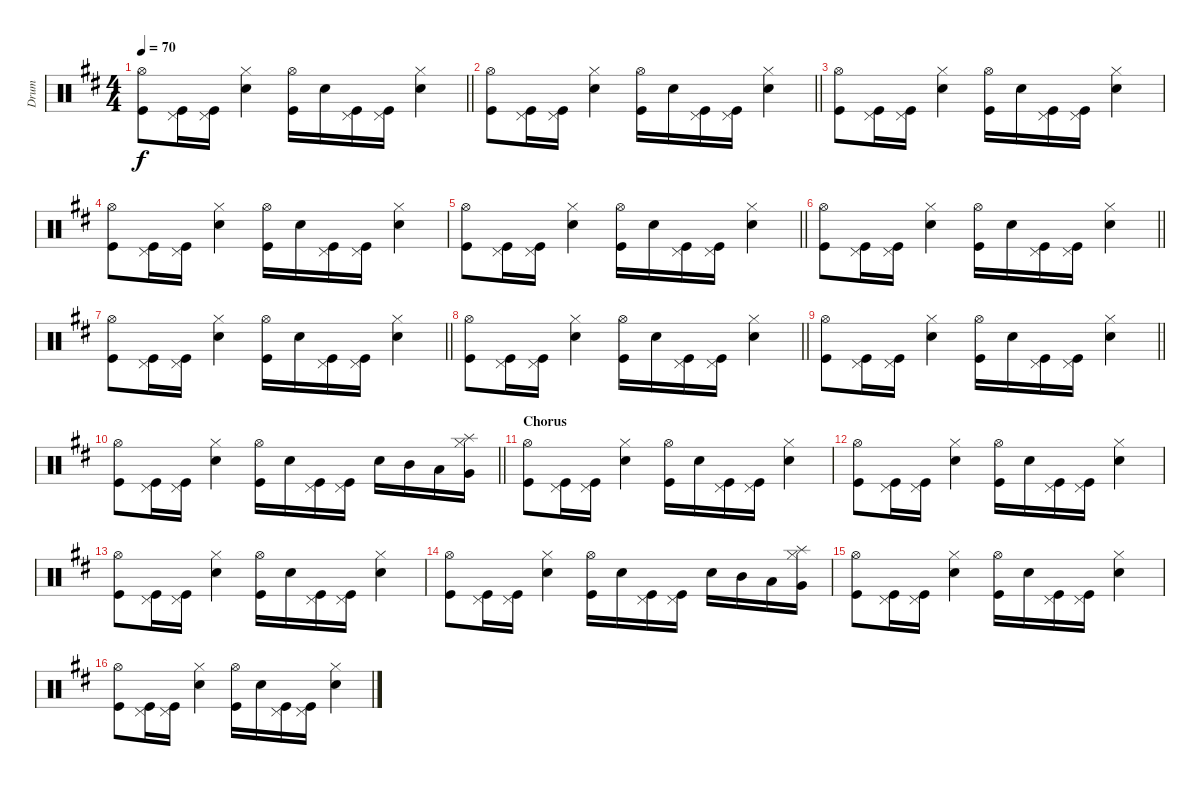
\track ("Drum" "Drum") {instrument percussion}
\staff {score}
\articulation defaults
\ts (4 4)
\tempo 70
\clef neutral
\barLineRight lightlight
\ks d
("Kick (hit)" "Hi-Hat (open)").8{dy f} ("Kick (hit)" "Pedal Hi-Hat (hit)").16 ("Kick (hit)" "Pedal Hi-Hat (hit)").16 ("Snare (hit) 2" "Hi-Hat (closed)").4 ("Kick (hit)" "Hi-Hat (open)").16 "Snare (hit) 2".16 ("Kick (hit)" "Pedal Hi-Hat (hit)").16 ("Kick (hit)" "Pedal Hi-Hat (hit)").16 ("Snare (hit) 2" "Hi-Hat (closed)").4 |
\barLineRight lightlight
("Kick (hit)" "Hi-Hat (open)").8 ("Kick (hit)" "Pedal Hi-Hat (hit)").16 ("Kick (hit)" "Pedal Hi-Hat (hit)").16 ("Snare (hit) 2" "Hi-Hat (closed)").4 ("Kick (hit)" "Hi-Hat (open)").16 "Snare (hit) 2".16 ("Kick (hit)" "Pedal Hi-Hat (hit)").16 ("Kick (hit)" "Pedal Hi-Hat (hit)").16 ("Snare (hit) 2" "Hi-Hat (closed)").4 |
("Kick (hit)" "Hi-Hat (open)").8 ("Kick (hit)" "Pedal Hi-Hat (hit)").16 ("Kick (hit)" "Pedal Hi-Hat (hit)").16 ("Snare (hit) 2" "Hi-Hat (closed)").4 ("Kick (hit)" "Hi-Hat (open)").16 "Snare (hit) 2".16 ("Kick (hit)" "Pedal Hi-Hat (hit)").16 ("Kick (hit)" "Pedal Hi-Hat (hit)").16 ("Snare (hit) 2" "Hi-Hat (closed)").4 |
("Kick (hit)" "Hi-Hat (open)").8 ("Kick (hit)" "Pedal Hi-Hat (hit)").16 ("Kick (hit)" "Pedal Hi-Hat (hit)").16 ("Snare (hit) 2" "Hi-Hat (closed)").4 ("Kick (hit)" "Hi-Hat (open)").16 "Snare (hit) 2".16 ("Kick (hit)" "Pedal Hi-Hat (hit)").16 ("Kick (hit)" "Pedal Hi-Hat (hit)").16 ("Snare (hit) 2" "Hi-Hat (closed)").4 |
\barLineRight lightlight
("Kick (hit)" "Hi-Hat (open)").8 ("Kick (hit)" "Pedal Hi-Hat (hit)").16 ("Kick (hit)" "Pedal Hi-Hat (hit)").16 ("Snare (hit) 2" "Hi-Hat (closed)").4 ("Kick (hit)" "Hi-Hat (open)").16 "Snare (hit) 2".16 ("Kick (hit)" "Pedal Hi-Hat (hit)").16 ("Kick (hit)" "Pedal Hi-Hat (hit)").16 ("Snare (hit) 2" "Hi-Hat (closed)").4 |
\barLineRight lightlight
("Kick (hit)" "Hi-Hat (open)").8 ("Kick (hit)" "Pedal Hi-Hat (hit)").16 ("Kick (hit)" "Pedal Hi-Hat (hit)").16 ("Snare (hit) 2" "Hi-Hat (closed)").4 ("Kick (hit)" "Hi-Hat (open)").16 "Snare (hit) 2".16 ("Kick (hit)" "Pedal Hi-Hat (hit)").16 ("Kick (hit)" "Pedal Hi-Hat (hit)").16 ("Snare (hit) 2" "Hi-Hat (closed)").4 |
\barLineRight lightlight
("Kick (hit)" "Hi-Hat (open)").8 ("Kick (hit)" "Pedal Hi-Hat (hit)").16 ("Kick (hit)" "Pedal Hi-Hat (hit)").16 ("Snare (hit) 2" "Hi-Hat (closed)").4 ("Kick (hit)" "Hi-Hat (open)").16 "Snare (hit) 2".16 ("Kick (hit)" "Pedal Hi-Hat (hit)").16 ("Kick (hit)" "Pedal Hi-Hat (hit)").16 ("Snare (hit) 2" "Hi-Hat (closed)").4 |
\barLineRight lightlight
("Kick (hit)" "Hi-Hat (open)").8 ("Kick (hit)" "Pedal Hi-Hat (hit)").16 ("Kick (hit)" "Pedal Hi-Hat (hit)").16 ("Snare (hit) 2" "Hi-Hat (closed)").4 ("Kick (hit)" "Hi-Hat (open)").16 "Snare (hit) 2".16 ("Kick (hit)" "Pedal Hi-Hat (hit)").16 ("Kick (hit)" "Pedal Hi-Hat (hit)").16 ("Snare (hit) 2" "Hi-Hat (closed)").4 |
\barLineRight lightlight
("Kick (hit)" "Hi-Hat (open)").8 ("Kick (hit)" "Pedal Hi-Hat (hit)").16 ("Kick (hit)" "Pedal Hi-Hat (hit)").16 ("Snare (hit) 2" "Hi-Hat (closed)").4 ("Kick (hit)" "Hi-Hat (open)").16 "Snare (hit) 2".16 ("Kick (hit)" "Pedal Hi-Hat (hit)").16 ("Kick (hit)" "Pedal Hi-Hat (hit)").16 ("Snare (hit) 2" "Hi-Hat (closed)").4 |
\barLineRight lightlight
("Kick (hit)" "Hi-Hat (open)").8 ("Kick (hit)" "Pedal Hi-Hat (hit)").16 ("Kick (hit)" "Pedal Hi-Hat (hit)").16 ("Snare (hit) 2" "Hi-Hat (closed)").4 ("Kick (hit)" "Hi-Hat (open)").16 "Snare (hit) 2".16 ("Kick (hit)" "Pedal Hi-Hat (hit)").16 ("Kick (hit)" "Pedal Hi-Hat (hit)").16 "Snare (hit) 2".16 "Mid Tom (hit)".16 "Low Tom (hit)".16 ("Splash (hit)" "Hi-Hat (closed)" "Very Low Tom (hit)").16 |
\section ("" "Chorus")
("Kick (hit)" "Hi-Hat (open)").8 ("Kick (hit)" "Pedal Hi-Hat (hit)").16 ("Kick (hit)" "Pedal Hi-Hat (hit)").16 ("Snare (hit) 2" "Hi-Hat (closed)").4 ("Kick (hit)" "Hi-Hat (open)").16 "Snare (hit) 2".16 ("Kick (hit)" "Pedal Hi-Hat (hit)").16 ("Kick (hit)" "Pedal Hi-Hat (hit)").16 ("Snare (hit) 2" "Hi-Hat (closed)").4 |
("Kick (hit)" "Hi-Hat (open)").8 ("Kick (hit)" "Pedal Hi-Hat (hit)").16 ("Kick (hit)" "Pedal Hi-Hat (hit)").16 ("Snare (hit) 2" "Hi-Hat (closed)").4 ("Kick (hit)" "Hi-Hat (open)").16 "Snare (hit) 2".16 ("Kick (hit)" "Pedal Hi-Hat (hit)").16 ("Kick (hit)" "Pedal Hi-Hat (hit)").16 ("Snare (hit) 2" "Hi-Hat (closed)").4 |
("Kick (hit)" "Hi-Hat (open)").8 ("Kick (hit)" "Pedal Hi-Hat (hit)").16 ("Kick (hit)" "Pedal Hi-Hat (hit)").16 ("Snare (hit) 2" "Hi-Hat (closed)").4 ("Kick (hit)" "Hi-Hat (open)").16 "Snare (hit) 2".16 ("Kick (hit)" "Pedal Hi-Hat (hit)").16 ("Kick (hit)" "Pedal Hi-Hat (hit)").16 ("Snare (hit) 2" "Hi-Hat (closed)").4 |
("Kick (hit)" "Hi-Hat (open)").8 ("Kick (hit)" "Pedal Hi-Hat (hit)").16 ("Kick (hit)" "Pedal Hi-Hat (hit)").16 ("Snare (hit) 2" "Hi-Hat (closed)").4 ("Kick (hit)" "Hi-Hat (open)").16 "Snare (hit) 2".16 ("Kick (hit)" "Pedal Hi-Hat (hit)").16 ("Kick (hit)" "Pedal Hi-Hat (hit)").16 "Snare (hit) 2".16 "Mid Tom (hit)".16 "Low Tom (hit)".16 ("Splash (hit)" "Hi-Hat (closed)" "Very Low Tom (hit)").16 |
("Kick (hit)" "Hi-Hat (open)").8 ("Kick (hit)" "Pedal Hi-Hat (hit)").16 ("Kick (hit)" "Pedal Hi-Hat (hit)").16 ("Snare (hit) 2" "Hi-Hat (closed)").4 ("Kick (hit)" "Hi-Hat (open)").16 "Snare (hit) 2".16 ("Kick (hit)" "Pedal Hi-Hat (hit)").16 ("Kick (hit)" "Pedal Hi-Hat (hit)").16 ("Snare (hit) 2" "Hi-Hat (closed)").4 |
("Kick (hit)" "Hi-Hat (open)").8 ("Kick (hit)" "Pedal Hi-Hat (hit)").16 ("Kick (hit)" "Pedal Hi-Hat (hit)").16 ("Snare (hit) 2" "Hi-Hat (closed)").4 ("Kick (hit)" "Hi-Hat (open)").16 "Snare (hit) 2".16 ("Kick (hit)" "Pedal Hi-Hat (hit)").16 ("Kick (hit)" "Pedal Hi-Hat (hit)").16 ("Snare (hit) 2" "Hi-Hat (closed)").4
